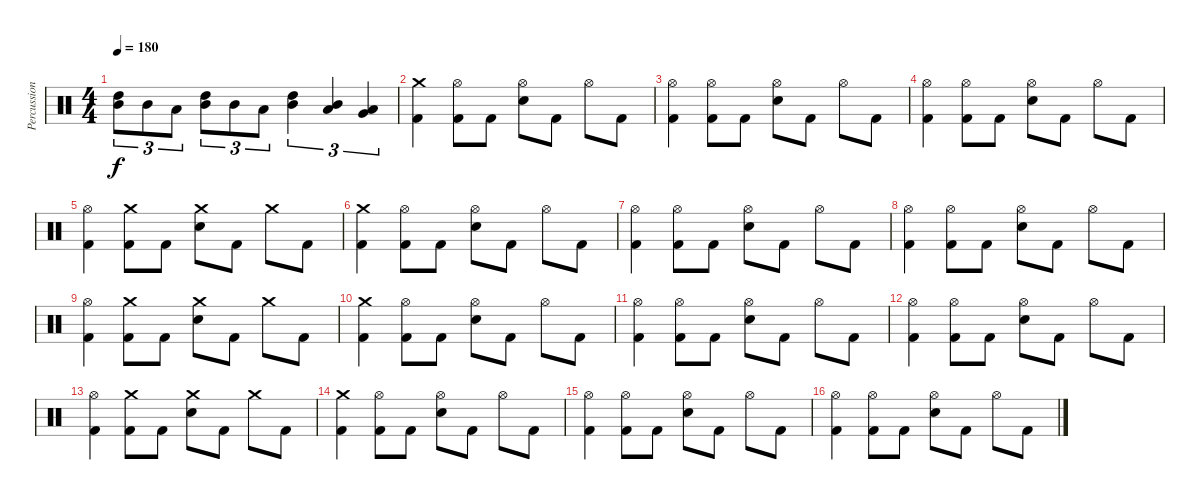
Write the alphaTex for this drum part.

\track ("Percussion" "Percussion") {instrument percussion}
\staff {score}
\articulation defaults
\ts (4 4)
\tempo 180
\clef neutral
\ks c
("Mid Tom (hit)" "High Tom (hit)").8{tu (3 2) dy f} "Mid Tom (hit)".8{tu (3 2)} "Low Tom (hit)".8{tu (3 2)} ("Mid Tom (hit)" "High Tom (hit)").8{tu (3 2)} "Mid Tom (hit)".8{tu (3 2)} "Low Tom (hit)".8{tu (3 2)} ("Mid Tom (hit)" "High Tom (hit)").4{tu (3 2)} ("Low Tom (hit)" "Mid Tom (hit)").4{tu (3 2)} ("Very Low Tom (hit)" "Low Tom (hit)").4{tu (3 2)} |
("Crash medium (hit)" "Kick (hit) 2").4 ("Hi-Hat (open)" "Kick (hit) 2").8 "Kick (hit) 2".8 ("Hi-Hat (open)" "Electric Snare (hit)").8 "Kick (hit) 2".8 "Hi-Hat (open)".8 "Kick (hit) 2".8 |
("Hi-Hat (open)" "Kick (hit) 2").4 ("Hi-Hat (open)" "Kick (hit) 2").8 "Kick (hit) 2".8 ("Hi-Hat (open)" "Electric Snare (hit)").8 "Kick (hit) 2".8 "Hi-Hat (open)".8 "Kick (hit) 2".8 |
("Hi-Hat (open)" "Kick (hit) 2").4 ("Hi-Hat (open)" "Kick (hit) 2").8 "Kick (hit) 2".8 ("Hi-Hat (open)" "Electric Snare (hit)").8 "Kick (hit) 2".8 "Hi-Hat (open)".8 "Kick (hit) 2".8 |
("Hi-Hat (open)" "Kick (hit) 2").4 ("Crash medium (hit)" "Kick (hit) 2").8 "Kick (hit) 2".8 ("Crash medium (hit)" "Electric Snare (hit)").8 "Kick (hit) 2".8 "Crash medium (hit)".8 "Kick (hit) 2".8 |
("Crash medium (hit)" "Kick (hit) 2").4 ("Hi-Hat (open)" "Kick (hit) 2").8 "Kick (hit) 2".8 ("Hi-Hat (open)" "Electric Snare (hit)").8 "Kick (hit) 2".8 "Hi-Hat (open)".8 "Kick (hit) 2".8 |
("Hi-Hat (open)" "Kick (hit) 2").4 ("Hi-Hat (open)" "Kick (hit) 2").8 "Kick (hit) 2".8 ("Hi-Hat (open)" "Electric Snare (hit)").8 "Kick (hit) 2".8 "Hi-Hat (open)".8 "Kick (hit) 2".8 |
("Hi-Hat (open)" "Kick (hit) 2").4 ("Hi-Hat (open)" "Kick (hit) 2").8 "Kick (hit) 2".8 ("Hi-Hat (open)" "Electric Snare (hit)").8 "Kick (hit) 2".8 "Hi-Hat (open)".8 "Kick (hit) 2".8 |
("Hi-Hat (open)" "Kick (hit) 2").4 ("Crash medium (hit)" "Kick (hit) 2").8 "Kick (hit) 2".8 ("Crash medium (hit)" "Electric Snare (hit)").8 "Kick (hit) 2".8 "Crash medium (hit)".8 "Kick (hit) 2".8 |
("Crash medium (hit)" "Kick (hit) 2").4 ("Hi-Hat (open)" "Kick (hit) 2").8 "Kick (hit) 2".8 ("Hi-Hat (open)" "Electric Snare (hit)").8 "Kick (hit) 2".8 "Hi-Hat (open)".8 "Kick (hit) 2".8 |
("Hi-Hat (open)" "Kick (hit) 2").4 ("Hi-Hat (open)" "Kick (hit) 2").8 "Kick (hit) 2".8 ("Hi-Hat (open)" "Electric Snare (hit)").8 "Kick (hit) 2".8 "Hi-Hat (open)".8 "Kick (hit) 2".8 |
("Hi-Hat (open)" "Kick (hit) 2").4 ("Hi-Hat (open)" "Kick (hit) 2").8 "Kick (hit) 2".8 ("Hi-Hat (open)" "Electric Snare (hit)").8 "Kick (hit) 2".8 "Hi-Hat (open)".8 "Kick (hit) 2".8 |
("Hi-Hat (open)" "Kick (hit) 2").4 ("Crash medium (hit)" "Kick (hit) 2").8 "Kick (hit) 2".8 ("Crash medium (hit)" "Electric Snare (hit)").8 "Kick (hit) 2".8 "Crash medium (hit)".8 "Kick (hit) 2".8 |
("Crash medium (hit)" "Kick (hit) 2").4 ("Hi-Hat (open)" "Kick (hit) 2").8 "Kick (hit) 2".8 ("Hi-Hat (open)" "Electric Snare (hit)").8 "Kick (hit) 2".8 "Hi-Hat (open)".8 "Kick (hit) 2".8 |
("Hi-Hat (open)" "Kick (hit) 2").4 ("Hi-Hat (open)" "Kick (hit) 2").8 "Kick (hit) 2".8 ("Hi-Hat (open)" "Electric Snare (hit)").8 "Kick (hit) 2".8 "Hi-Hat (open)".8 "Kick (hit) 2".8 |
("Hi-Hat (open)" "Kick (hit) 2").4 ("Hi-Hat (open)" "Kick (hit) 2").8 "Kick (hit) 2".8 ("Hi-Hat (open)" "Electric Snare (hit)").8 "Kick (hit) 2".8 "Hi-Hat (open)".8 "Kick (hit) 2".8
